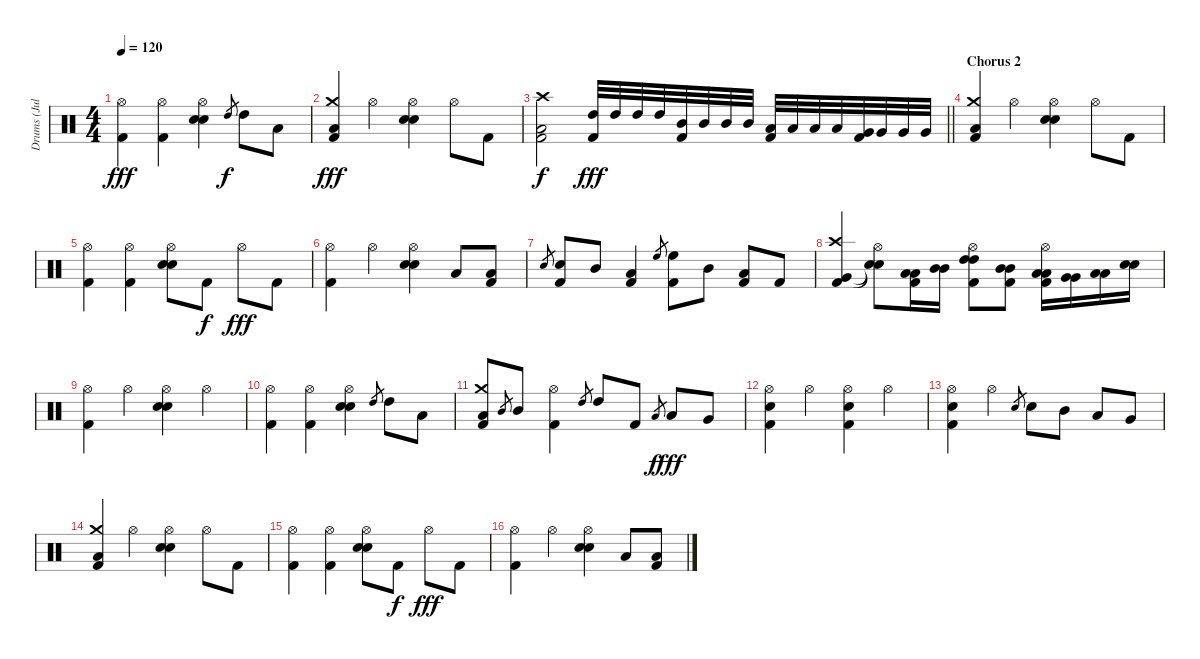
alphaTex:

\track ("Drums (Julian Del Rosario)" "Drums (Jul") {instrument percussion}
\staff {score}
\articulation defaults
\ts (4 4)
\tempo 120
\clef neutral
\ks c
("Hi-Hat (open)" "Kick (hit) 2").4{dy fff} ("Hi-Hat (open)" "Kick (hit) 2").4 ("Hi-Hat (open)" "Snare (hit) 2" "Electric Snare (hit)").4 "High Tom (hit)".8{gr dy f} "High Tom (hit)".8 "Low Tom (hit)".8 |
("Crash medium (hit)" "Low Floor Tom (hit)" "Kick (hit) 2").4{dy fff} "Hi-Hat (open)".4 ("Hi-Hat (open)" "Snare (hit) 2" "Electric Snare (hit)").4 "Hi-Hat (open)".8 "Kick (hit) 2".8 |
\barLineRight lightlight
("Crash high (hit)" "Low Tom (hit)" "Kick (hit) 2").2{dy f} ("High Tom (hit)" "Kick (hit) 2").32{dy fff balance 13} "High Tom (hit)".32 "High Tom (hit)".32 "High Tom (hit)".32 ("Mid Tom (hit)" "Kick (hit) 2").32{balance 11} "Mid Tom (hit)".32 "Mid Tom (hit)".32 "Mid Tom (hit)".32 ("Low Tom (hit)" "Kick (hit) 2").32{balance 9} "Low Tom (hit)".32 "Low Tom (hit)".32 "Low Tom (hit)".32 ("Very Low Tom (hit)" "Kick (hit) 2").32{balance 6} "Very Low Tom (hit)".32 "Very Low Tom (hit)".32 "Very Low Tom (hit)".32 |
\section ("" "Chorus 2")
("Crash medium (hit)" "Low Floor Tom (hit)" "Kick (hit) 2").4{balance 8} "Hi-Hat (open)".4 ("Hi-Hat (open)" "Snare (hit) 2" "Electric Snare (hit)").4 "Hi-Hat (open)".8 "Kick (hit) 2".8 |
("Hi-Hat (open)" "Kick (hit) 2").4 ("Hi-Hat (open)" "Kick (hit) 2").4 ("Hi-Hat (open)" "Snare (hit) 2" "Electric Snare (hit)").8 "Kick (hit) 2".8{dy f} "Hi-Hat (open)".8{dy fff} "Kick (hit) 2".8 |
("Hi-Hat (open)" "Kick (hit) 2").4 "Hi-Hat (open)".4 ("Hi-Hat (open)" "Snare (hit) 2" "Electric Snare (hit)").4 "Low Floor Tom (hit)".8 ("Low Floor Tom (hit)" "Kick (hit) 2").8 |
"Snare (hit) 2".8{gr} ("Snare (hit) 2" "Kick (hit) 2").8{volume 10} "Mid Tom (hit)".8 ("Low Tom (hit)" "Kick (hit) 2").4 "High Floor Tom (hit)".8{gr} ("High Floor Tom (hit)" "Kick (hit) 2").8 "Mid Tom (hit)".8 ("Low Tom (hit)" "Kick (hit) 2").8 "Kick (hit) 2".8 |
("Crash high (hit)" "Very Low Tom (hit)" "Kick (hit) 2").4 ("Hi-Hat (open)" "Snare (hit)"{t} "Snare (hit)"{t}).8 ("Low Tom (hit)" "Low Tom (hit)" "Kick (hit) 2").16 ("Mid Tom (hit)" "Mid Tom (hit)").16 ("Hi-Hat (open)" "High Tom (hit)" "High Tom (hit)" "Kick (hit) 2").8 ("Mid Tom (hit)" "Mid Tom (hit)" "Kick (hit) 2").8 ("Hi-Hat (open)" "Low Tom (hit)" "Low Tom (hit)" "Kick (hit) 2").16 ("Very Low Tom (hit)" "Very Low Tom (hit)").16 ("Low Floor Tom (hit)" "Low Floor Tom (hit)").16 ("Snare (hit) 2" "Snare (hit) 2").16 |
("Hi-Hat (open)" "Kick (hit) 2").4{volume 6} "Hi-Hat (open)".4 ("Hi-Hat (open)" "Snare (hit) 2" "Electric Snare (hit)").4 "Hi-Hat (open)".4 |
("Hi-Hat (open)" "Kick (hit) 2").4 ("Hi-Hat (open)" "Kick (hit) 2").4 ("Hi-Hat (open)" "Snare (hit) 2" "Electric Snare (hit)").4 "High Tom (hit)".8{gr} "High Tom (hit)".8 "Low Tom (hit)".8 |
("Crash medium (hit)" "Low Floor Tom (hit)" "Kick (hit) 2").8 "Mid Tom (hit)".8{gr} "Mid Tom (hit)".8 ("Hi-Hat (open)" "Kick (hit) 2").4 "High Tom (hit)".8{gr} "High Tom (hit)".8 "Kick (hit) 2".8 "Low Tom (hit)".8{gr dy f} "Low Tom (hit)".8{dy fff} "Very Low Tom (hit)".8 |
("Hi-Hat (open)" "Snare (hit) 2" "Kick (hit) 2").4 "Hi-Hat (open)".4 ("Hi-Hat (open)" "Electric Snare (hit)" "Kick (hit) 2").4 "Hi-Hat (open)".4 |
("Hi-Hat (open)" "Snare (hit) 2" "Kick (hit) 2").4 "Hi-Hat (open)".4 "Snare (hit) 2".8{gr} "Snare (hit) 2".8 "Mid Tom (hit)".8 "Low Tom (hit)".8 "Very Low Tom (hit)".8 |
("Crash medium (hit)" "Low Floor Tom (hit)" "Kick (hit) 2").4 "Hi-Hat (open)".4 ("Hi-Hat (open)" "Snare (hit) 2" "Electric Snare (hit)").4 "Hi-Hat (open)".8 "Kick (hit) 2".8 |
("Hi-Hat (open)" "Kick (hit) 2").4 ("Hi-Hat (open)" "Kick (hit) 2").4 ("Hi-Hat (open)" "Snare (hit) 2" "Electric Snare (hit)").8 "Kick (hit) 2".8{dy f} "Hi-Hat (open)".8{dy fff} "Kick (hit) 2".8 |
("Hi-Hat (open)" "Kick (hit) 2").4 "Hi-Hat (open)".4 ("Hi-Hat (open)" "Snare (hit) 2" "Electric Snare (hit)").4 "Low Floor Tom (hit)".8 ("Low Floor Tom (hit)" "Kick (hit) 2").8
